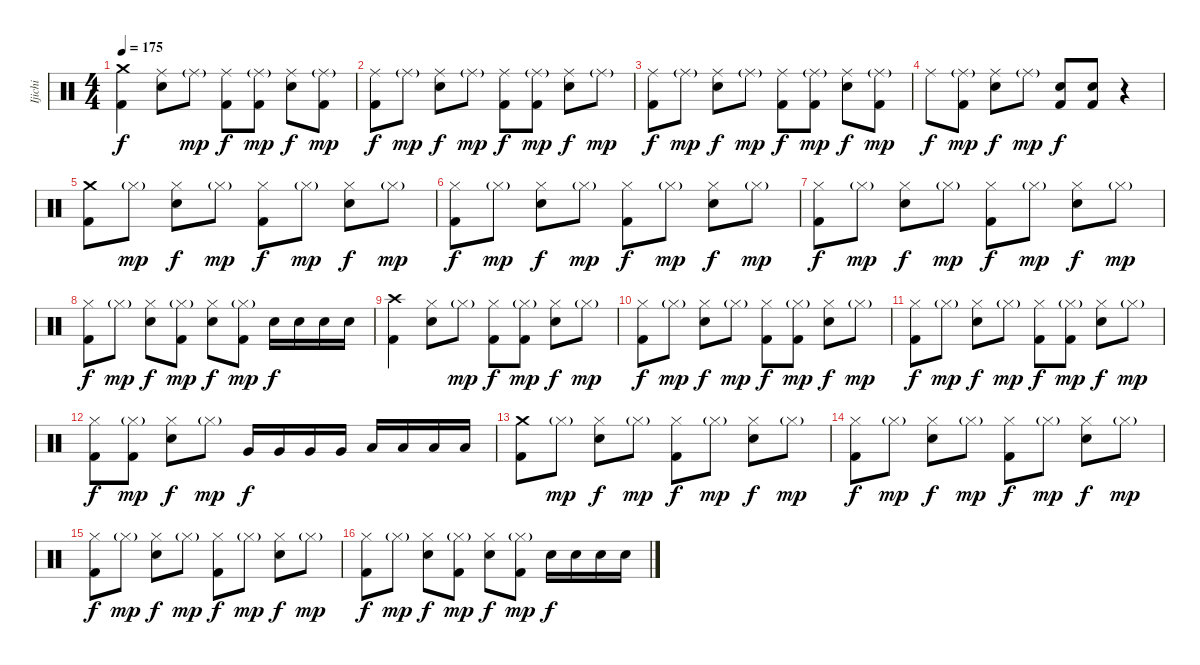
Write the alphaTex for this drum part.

\track ("Ijichi" "Ijichi") {instrument percussion}
\staff {score}
\articulation defaults
\ts (4 4)
\tempo 175
\clef neutral
\ks c
("Crash medium (hit)" "Kick (hit) 2").4{dy f} ("Ride (middle)" "Electric Snare (hit)").8 "Ride (middle)"{g}.8{dy mp} ("Ride (middle)" "Kick (hit) 2").8{dy f} ("Ride (middle)"{g} "Kick (hit) 2").8{dy mp} ("Ride (middle)" "Electric Snare (hit)").8{dy f} ("Ride (middle)"{g} "Kick (hit) 2").8{dy mp} |
("Ride (middle)" "Kick (hit) 2").8{dy f} "Ride (middle)"{g}.8{dy mp} ("Ride (middle)" "Electric Snare (hit)").8{dy f} "Ride (middle)"{g}.8{dy mp} ("Ride (middle)" "Kick (hit) 2").8{dy f} ("Ride (middle)"{g} "Kick (hit) 2").8{dy mp} ("Ride (middle)" "Electric Snare (hit)").8{dy f} "Ride (middle)"{g}.8{dy mp} |
("Ride (middle)" "Kick (hit) 2").8{dy f} "Ride (middle)"{g}.8{dy mp} ("Ride (middle)" "Electric Snare (hit)").8{dy f} "Ride (middle)"{g}.8{dy mp} ("Ride (middle)" "Kick (hit) 2").8{dy f} ("Ride (middle)"{g} "Kick (hit) 2").8{dy mp} ("Ride (middle)" "Electric Snare (hit)").8{dy f} ("Ride (middle)"{g} "Kick (hit) 2").8{dy mp} |
"Ride (middle)".8{dy f} ("Ride (middle)"{g} "Kick (hit) 2").8{dy mp} ("Ride (middle)" "Electric Snare (hit)").8{dy f} "Ride (middle)"{g}.8{dy mp} ("Electric Snare (hit)" "Kick (hit) 2").8{dy f} ("Electric Snare (hit)" "Kick (hit) 2").8 r.4 |
("Crash medium (hit)" "Kick (hit) 2").8 "Hi-Hat (closed)"{g}.8{dy mp} ("Hi-Hat (closed)" "Electric Snare (hit)").8{dy f} "Hi-Hat (closed)"{g}.8{dy mp} ("Hi-Hat (closed)" "Kick (hit) 2").8{dy f} "Hi-Hat (closed)"{g}.8{dy mp} ("Hi-Hat (closed)" "Electric Snare (hit)").8{dy f} "Hi-Hat (closed)"{g}.8{dy mp} |
("Hi-Hat (closed)" "Kick (hit) 2").8{dy f} "Hi-Hat (closed)"{g}.8{dy mp} ("Hi-Hat (closed)" "Electric Snare (hit)").8{dy f} "Hi-Hat (closed)"{g}.8{dy mp} ("Hi-Hat (closed)" "Kick (hit) 2").8{dy f} "Hi-Hat (closed)"{g}.8{dy mp} ("Hi-Hat (closed)" "Electric Snare (hit)").8{dy f} "Hi-Hat (closed)"{g}.8{dy mp} |
("Hi-Hat (closed)" "Kick (hit) 2").8{dy f} "Hi-Hat (closed)"{g}.8{dy mp} ("Hi-Hat (closed)" "Electric Snare (hit)").8{dy f} "Hi-Hat (closed)"{g}.8{dy mp} ("Hi-Hat (closed)" "Kick (hit) 2").8{dy f} "Hi-Hat (closed)"{g}.8{dy mp} ("Hi-Hat (closed)" "Electric Snare (hit)").8{dy f} "Hi-Hat (closed)"{g}.8{dy mp} |
("Hi-Hat (closed)" "Kick (hit) 2").8{dy f} "Hi-Hat (closed)"{g}.8{dy mp} ("Hi-Hat (closed)" "Electric Snare (hit)").8{dy f} ("Hi-Hat (closed)"{g} "Kick (hit) 2").8{dy mp} ("Hi-Hat (closed)" "Electric Snare (hit)").8{dy f} ("Hi-Hat (closed)"{g} "Kick (hit) 2").8{dy mp} "Electric Snare (hit)".16{dy f} "Electric Snare (hit)".16 "Electric Snare (hit)".16 "Electric Snare (hit)".16 |
("Crash high (hit)" "Kick (hit) 2").4 ("Hi-Hat (closed)" "Electric Snare (hit)").8 "Hi-Hat (closed)"{g}.8{dy mp} ("Hi-Hat (closed)" "Kick (hit) 2").8{dy f} ("Hi-Hat (closed)"{g} "Kick (hit) 2").8{dy mp} ("Hi-Hat (closed)" "Electric Snare (hit)").8{dy f} "Hi-Hat (closed)"{g}.8{dy mp} |
("Hi-Hat (closed)" "Kick (hit) 2").8{dy f} "Hi-Hat (closed)"{g}.8{dy mp} ("Hi-Hat (closed)" "Electric Snare (hit)").8{dy f} "Hi-Hat (closed)"{g}.8{dy mp} ("Hi-Hat (closed)" "Kick (hit) 2").8{dy f} ("Hi-Hat (closed)"{g} "Kick (hit) 2").8{dy mp} ("Hi-Hat (closed)" "Electric Snare (hit)").8{dy f} "Hi-Hat (closed)"{g}.8{dy mp} |
("Hi-Hat (closed)" "Kick (hit) 2").8{dy f} "Hi-Hat (closed)"{g}.8{dy mp} ("Hi-Hat (closed)" "Electric Snare (hit)").8{dy f} "Hi-Hat (closed)"{g}.8{dy mp} ("Hi-Hat (closed)" "Kick (hit) 2").8{dy f} ("Hi-Hat (closed)"{g} "Kick (hit) 2").8{dy mp} ("Hi-Hat (closed)" "Electric Snare (hit)").8{dy f} "Hi-Hat (closed)"{g}.8{dy mp} |
("Hi-Hat (closed)" "Kick (hit) 2").8{dy f} ("Hi-Hat (closed)"{g} "Kick (hit) 2").8{dy mp} ("Hi-Hat (closed)" "Electric Snare (hit)").8{dy f} "Hi-Hat (closed)"{g}.8{dy mp} "Very Low Tom (hit)".16{dy f} "Very Low Tom (hit)".16 "Very Low Tom (hit)".16 "Very Low Tom (hit)".16 "Low Floor Tom (hit)".16 "Low Floor Tom (hit)".16 "Low Floor Tom (hit)".16 "Low Floor Tom (hit)".16 |
("Crash medium (hit)" "Kick (hit) 2").8 "Hi-Hat (closed)"{g}.8{dy mp} ("Hi-Hat (closed)" "Electric Snare (hit)").8{dy f} "Hi-Hat (closed)"{g}.8{dy mp} ("Hi-Hat (closed)" "Kick (hit) 2").8{dy f} "Hi-Hat (closed)"{g}.8{dy mp} ("Hi-Hat (closed)" "Electric Snare (hit)").8{dy f} "Hi-Hat (closed)"{g}.8{dy mp} |
("Hi-Hat (closed)" "Kick (hit) 2").8{dy f} "Hi-Hat (closed)"{g}.8{dy mp} ("Hi-Hat (closed)" "Electric Snare (hit)").8{dy f} "Hi-Hat (closed)"{g}.8{dy mp} ("Hi-Hat (closed)" "Kick (hit) 2").8{dy f} "Hi-Hat (closed)"{g}.8{dy mp} ("Hi-Hat (closed)" "Electric Snare (hit)").8{dy f} "Hi-Hat (closed)"{g}.8{dy mp} |
("Hi-Hat (closed)" "Kick (hit) 2").8{dy f} "Hi-Hat (closed)"{g}.8{dy mp} ("Hi-Hat (closed)" "Electric Snare (hit)").8{dy f} "Hi-Hat (closed)"{g}.8{dy mp} ("Hi-Hat (closed)" "Kick (hit) 2").8{dy f} "Hi-Hat (closed)"{g}.8{dy mp} ("Hi-Hat (closed)" "Electric Snare (hit)").8{dy f} "Hi-Hat (closed)"{g}.8{dy mp} |
("Hi-Hat (closed)" "Kick (hit) 2").8{dy f} "Hi-Hat (closed)"{g}.8{dy mp} ("Hi-Hat (closed)" "Electric Snare (hit)").8{dy f} ("Hi-Hat (closed)"{g} "Kick (hit) 2").8{dy mp} ("Hi-Hat (closed)" "Electric Snare (hit)").8{dy f} ("Hi-Hat (closed)"{g} "Kick (hit) 2").8{dy mp} "Electric Snare (hit)".16{dy f} "Electric Snare (hit)".16 "Electric Snare (hit)".16 "Electric Snare (hit)".16
